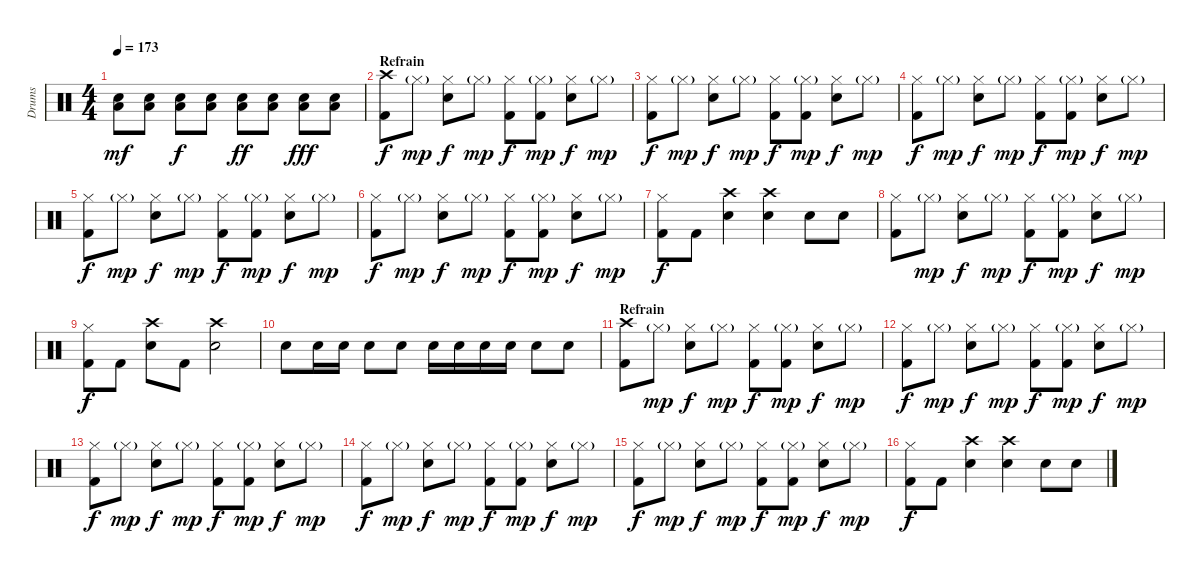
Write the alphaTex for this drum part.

\track ("Drums" "Drums") {instrument percussion}
\staff {score}
\articulation defaults
\ts (4 4)
\tempo 173
\clef neutral
\ks c
("Electric Snare (hit)" "Low Tom (hit)").8{dy mf} ("Electric Snare (hit)" "Low Tom (hit)").8 ("Electric Snare (hit)" "Low Tom (hit)").8{dy f} ("Electric Snare (hit)" "Low Tom (hit)").8 ("Electric Snare (hit)" "Low Tom (hit)").8{dy ff} ("Electric Snare (hit)" "Low Tom (hit)").8 ("Electric Snare (hit)" "Low Tom (hit)").8{dy fff} ("Electric Snare (hit)" "Low Tom (hit)").8 |
\section ("" "Refrain")
("Crash high (hit)" "Kick (hit) 2").8{dy f} "Hi-Hat (closed)"{g}.8{dy mp} ("Hi-Hat (closed)" "Electric Snare (hit)").8{dy f} "Hi-Hat (closed)"{g}.8{dy mp} ("Hi-Hat (closed)" "Kick (hit) 2").8{dy f} ("Hi-Hat (closed)"{g} "Kick (hit) 2").8{dy mp} ("Hi-Hat (closed)" "Electric Snare (hit)").8{dy f} "Hi-Hat (closed)"{g}.8{dy mp} |
("Hi-Hat (closed)" "Kick (hit) 2").8{dy f} "Hi-Hat (closed)"{g}.8{dy mp} ("Hi-Hat (closed)" "Electric Snare (hit)").8{dy f} "Hi-Hat (closed)"{g}.8{dy mp} ("Hi-Hat (closed)" "Kick (hit) 2").8{dy f} ("Hi-Hat (closed)"{g} "Kick (hit) 2").8{dy mp} ("Hi-Hat (closed)" "Electric Snare (hit)").8{dy f} "Hi-Hat (closed)"{g}.8{dy mp} |
("Hi-Hat (closed)" "Kick (hit) 2").8{dy f} "Hi-Hat (closed)"{g}.8{dy mp} ("Hi-Hat (closed)" "Electric Snare (hit)").8{dy f} "Hi-Hat (closed)"{g}.8{dy mp} ("Hi-Hat (closed)" "Kick (hit) 2").8{dy f} ("Hi-Hat (closed)"{g} "Kick (hit) 2").8{dy mp} ("Hi-Hat (closed)" "Electric Snare (hit)").8{dy f} "Hi-Hat (closed)"{g}.8{dy mp} |
("Hi-Hat (closed)" "Kick (hit) 2").8{dy f} "Hi-Hat (closed)"{g}.8{dy mp} ("Hi-Hat (closed)" "Electric Snare (hit)").8{dy f} "Hi-Hat (closed)"{g}.8{dy mp} ("Hi-Hat (closed)" "Kick (hit) 2").8{dy f} ("Hi-Hat (closed)"{g} "Kick (hit) 2").8{dy mp} ("Hi-Hat (closed)" "Electric Snare (hit)").8{dy f} "Hi-Hat (closed)"{g}.8{dy mp} |
("Hi-Hat (closed)" "Kick (hit) 2").8{dy f} "Hi-Hat (closed)"{g}.8{dy mp} ("Hi-Hat (closed)" "Electric Snare (hit)").8{dy f} "Hi-Hat (closed)"{g}.8{dy mp} ("Hi-Hat (closed)" "Kick (hit) 2").8{dy f} ("Hi-Hat (closed)"{g} "Kick (hit) 2").8{dy mp} ("Hi-Hat (closed)" "Electric Snare (hit)").8{dy f} "Hi-Hat (closed)"{g}.8{dy mp} |
("Hi-Hat (closed)" "Kick (hit) 2").8{dy f} "Kick (hit) 2".8 ("Crash high (hit)" "Electric Snare (hit)").4 ("Crash high (hit)" "Electric Snare (hit)").4 "Electric Snare (hit)".8 "Electric Snare (hit)".8 |
("Hi-Hat (closed)" "Kick (hit) 2").8 "Hi-Hat (closed)"{g}.8{dy mp} ("Hi-Hat (closed)" "Electric Snare (hit)").8{dy f} "Hi-Hat (closed)"{g}.8{dy mp} ("Hi-Hat (closed)" "Kick (hit) 2").8{dy f} ("Hi-Hat (closed)"{g} "Kick (hit) 2").8{dy mp} ("Hi-Hat (closed)" "Electric Snare (hit)").8{dy f} "Hi-Hat (closed)"{g}.8{dy mp} |
("Hi-Hat (closed)" "Kick (hit) 2").8{dy f} "Kick (hit) 2".8 ("Crash high (hit)" "Electric Snare (hit)").8 "Kick (hit) 2".8 ("Crash high (hit)" "Electric Snare (hit)").2 |
"Electric Snare (hit)".8 "Electric Snare (hit)".16 "Electric Snare (hit)".16 "Electric Snare (hit)".8 "Electric Snare (hit)".8 "Electric Snare (hit)".16 "Electric Snare (hit)".16 "Electric Snare (hit)".16 "Electric Snare (hit)".16 "Electric Snare (hit)".8 "Electric Snare (hit)".8 |
\section ("" "Refrain")
("Crash high (hit)" "Kick (hit) 2").8 "Hi-Hat (closed)"{g}.8{dy mp} ("Hi-Hat (closed)" "Electric Snare (hit)").8{dy f} "Hi-Hat (closed)"{g}.8{dy mp} ("Hi-Hat (closed)" "Kick (hit) 2").8{dy f} ("Hi-Hat (closed)"{g} "Kick (hit) 2").8{dy mp} ("Hi-Hat (closed)" "Electric Snare (hit)").8{dy f} "Hi-Hat (closed)"{g}.8{dy mp} |
("Hi-Hat (closed)" "Kick (hit) 2").8{dy f} "Hi-Hat (closed)"{g}.8{dy mp} ("Hi-Hat (closed)" "Electric Snare (hit)").8{dy f} "Hi-Hat (closed)"{g}.8{dy mp} ("Hi-Hat (closed)" "Kick (hit) 2").8{dy f} ("Hi-Hat (closed)"{g} "Kick (hit) 2").8{dy mp} ("Hi-Hat (closed)" "Electric Snare (hit)").8{dy f} "Hi-Hat (closed)"{g}.8{dy mp} |
("Hi-Hat (closed)" "Kick (hit) 2").8{dy f} "Hi-Hat (closed)"{g}.8{dy mp} ("Hi-Hat (closed)" "Electric Snare (hit)").8{dy f} "Hi-Hat (closed)"{g}.8{dy mp} ("Hi-Hat (closed)" "Kick (hit) 2").8{dy f} ("Hi-Hat (closed)"{g} "Kick (hit) 2").8{dy mp} ("Hi-Hat (closed)" "Electric Snare (hit)").8{dy f} "Hi-Hat (closed)"{g}.8{dy mp} |
("Hi-Hat (closed)" "Kick (hit) 2").8{dy f} "Hi-Hat (closed)"{g}.8{dy mp} ("Hi-Hat (closed)" "Electric Snare (hit)").8{dy f} "Hi-Hat (closed)"{g}.8{dy mp} ("Hi-Hat (closed)" "Kick (hit) 2").8{dy f} ("Hi-Hat (closed)"{g} "Kick (hit) 2").8{dy mp} ("Hi-Hat (closed)" "Electric Snare (hit)").8{dy f} "Hi-Hat (closed)"{g}.8{dy mp} |
("Hi-Hat (closed)" "Kick (hit) 2").8{dy f} "Hi-Hat (closed)"{g}.8{dy mp} ("Hi-Hat (closed)" "Electric Snare (hit)").8{dy f} "Hi-Hat (closed)"{g}.8{dy mp} ("Hi-Hat (closed)" "Kick (hit) 2").8{dy f} ("Hi-Hat (closed)"{g} "Kick (hit) 2").8{dy mp} ("Hi-Hat (closed)" "Electric Snare (hit)").8{dy f} "Hi-Hat (closed)"{g}.8{dy mp} |
("Hi-Hat (closed)" "Kick (hit) 2").8{dy f} "Kick (hit) 2".8 ("Crash high (hit)" "Electric Snare (hit)").4 ("Crash high (hit)" "Electric Snare (hit)").4 "Electric Snare (hit)".8 "Electric Snare (hit)".8
